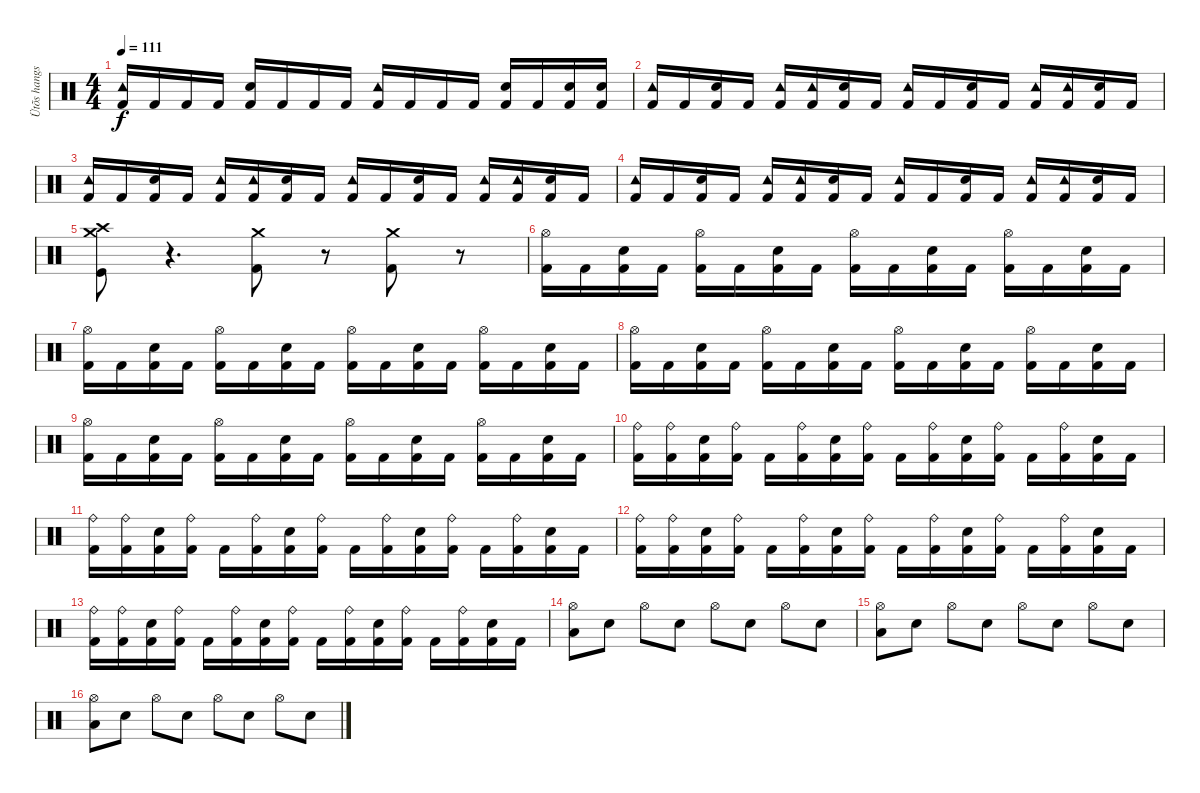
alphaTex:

\track ("Ütõs hangszer" "Ütõs hangs") {instrument percussion}
\staff {score}
\articulation defaults
\ts (4 4)
\tempo 111
\clef neutral
\ks c
("Kick (hit) 2" "Tambourine (hit)").16{dy f} "Kick (hit) 2".16 "Kick (hit) 2".16 "Kick (hit) 2".16 ("Kick (hit) 2" "Electric Snare (hit)").16 "Kick (hit) 2".16 "Kick (hit) 2".16 "Kick (hit) 2".16 ("Kick (hit) 2" "Tambourine (hit)").16 "Kick (hit) 2".16 "Kick (hit) 2".16 "Kick (hit) 2".16 ("Kick (hit) 2" "Electric Snare (hit)").16 "Kick (hit) 2".16 ("Kick (hit) 2" "Electric Snare (hit)").16 ("Kick (hit) 2" "Electric Snare (hit)").16 |
("Kick (hit) 2" "Tambourine (hit)").16 "Kick (hit) 2".16 ("Kick (hit) 2" "Electric Snare (hit)").16 "Kick (hit) 2".16 ("Kick (hit) 2" "Tambourine (hit)").16 ("Kick (hit) 2" "Tambourine (hit)").16 ("Kick (hit) 2" "Electric Snare (hit)").16 "Kick (hit) 2".16 ("Kick (hit) 2" "Tambourine (hit)").16 "Kick (hit) 2".16 ("Kick (hit) 2" "Electric Snare (hit)").16 "Kick (hit) 2".16 ("Kick (hit) 2" "Tambourine (hit)").16 ("Kick (hit) 2" "Tambourine (hit)").16 ("Kick (hit) 2" "Electric Snare (hit)").16 "Kick (hit) 2".16 |
("Kick (hit) 2" "Tambourine (hit)").16 "Kick (hit) 2".16 ("Kick (hit) 2" "Electric Snare (hit)").16 "Kick (hit) 2".16 ("Kick (hit) 2" "Tambourine (hit)").16 ("Kick (hit) 2" "Tambourine (hit)").16 ("Kick (hit) 2" "Electric Snare (hit)").16 "Kick (hit) 2".16 ("Kick (hit) 2" "Tambourine (hit)").16 "Kick (hit) 2".16 ("Kick (hit) 2" "Electric Snare (hit)").16 "Kick (hit) 2".16 ("Kick (hit) 2" "Tambourine (hit)").16 ("Kick (hit) 2" "Tambourine (hit)").16 ("Kick (hit) 2" "Electric Snare (hit)").16 "Kick (hit) 2".16 |
("Kick (hit) 2" "Tambourine (hit)").16 "Kick (hit) 2".16 ("Kick (hit) 2" "Electric Snare (hit)").16 "Kick (hit) 2".16 ("Kick (hit) 2" "Tambourine (hit)").16 ("Kick (hit) 2" "Tambourine (hit)").16 ("Kick (hit) 2" "Electric Snare (hit)").16 "Kick (hit) 2".16 ("Kick (hit) 2" "Tambourine (hit)").16 "Kick (hit) 2".16 ("Kick (hit) 2" "Electric Snare (hit)").16 "Kick (hit) 2".16 ("Kick (hit) 2" "Tambourine (hit)").16 ("Kick (hit) 2" "Tambourine (hit)").16 ("Kick (hit) 2" "Electric Snare (hit)").16 "Kick (hit) 2".16 |
("Crash medium (hit)" "Crash high (hit)" "Kick (hit)").8 r.4{d} ("Crash medium (hit)" "Kick (hit) 2").8 r.8 ("Crash medium (hit)" "Kick (hit) 2").8 r.8 |
("Kick (hit) 2" "Hi-Hat (open)").16 "Kick (hit) 2".16 ("Kick (hit) 2" "Electric Snare (hit)").16 "Kick (hit) 2".16 ("Kick (hit) 2" "Hi-Hat (open)").16 "Kick (hit) 2".16 ("Kick (hit) 2" "Electric Snare (hit)").16 "Kick (hit) 2".16 ("Kick (hit) 2" "Hi-Hat (open)").16 "Kick (hit) 2".16 ("Kick (hit) 2" "Electric Snare (hit)").16 "Kick (hit) 2".16 ("Kick (hit) 2" "Hi-Hat (open)").16 "Kick (hit) 2".16 ("Kick (hit) 2" "Electric Snare (hit)").16 "Kick (hit) 2".16 |
("Kick (hit) 2" "Hi-Hat (open)").16 "Kick (hit) 2".16 ("Kick (hit) 2" "Electric Snare (hit)").16 "Kick (hit) 2".16 ("Kick (hit) 2" "Hi-Hat (open)").16 "Kick (hit) 2".16 ("Kick (hit) 2" "Electric Snare (hit)").16 "Kick (hit) 2".16 ("Kick (hit) 2" "Hi-Hat (open)").16 "Kick (hit) 2".16 ("Kick (hit) 2" "Electric Snare (hit)").16 "Kick (hit) 2".16 ("Kick (hit) 2" "Hi-Hat (open)").16 "Kick (hit) 2".16 ("Kick (hit) 2" "Electric Snare (hit)").16 "Kick (hit) 2".16 |
("Kick (hit) 2" "Hi-Hat (open)").16 "Kick (hit) 2".16 ("Kick (hit) 2" "Electric Snare (hit)").16 "Kick (hit) 2".16 ("Kick (hit) 2" "Hi-Hat (open)").16 "Kick (hit) 2".16 ("Kick (hit) 2" "Electric Snare (hit)").16 "Kick (hit) 2".16 ("Kick (hit) 2" "Hi-Hat (open)").16 "Kick (hit) 2".16 ("Kick (hit) 2" "Electric Snare (hit)").16 "Kick (hit) 2".16 ("Kick (hit) 2" "Hi-Hat (open)").16 "Kick (hit) 2".16 ("Kick (hit) 2" "Electric Snare (hit)").16 "Kick (hit) 2".16 |
("Kick (hit) 2" "Hi-Hat (open)").16 "Kick (hit) 2".16 ("Kick (hit) 2" "Electric Snare (hit)").16 "Kick (hit) 2".16 ("Kick (hit) 2" "Hi-Hat (open)").16 "Kick (hit) 2".16 ("Kick (hit) 2" "Electric Snare (hit)").16 "Kick (hit) 2".16 ("Kick (hit) 2" "Hi-Hat (open)").16 "Kick (hit) 2".16 ("Kick (hit) 2" "Electric Snare (hit)").16 "Kick (hit) 2".16 ("Kick (hit) 2" "Hi-Hat (open)").16 "Kick (hit) 2".16 ("Kick (hit) 2" "Electric Snare (hit)").16 "Kick (hit) 2".16 |
("Kick (hit) 2" "Ride (bell)").16 ("Kick (hit) 2" "Ride (bell)").16 ("Kick (hit) 2" "Electric Snare (hit)").16 ("Kick (hit) 2" "Ride (bell)").16 "Kick (hit) 2".16 ("Kick (hit) 2" "Ride (bell)").16 ("Kick (hit) 2" "Electric Snare (hit)").16 ("Kick (hit) 2" "Ride (bell)").16 "Kick (hit) 2".16 ("Kick (hit) 2" "Ride (bell)").16 ("Kick (hit) 2" "Electric Snare (hit)").16 ("Kick (hit) 2" "Ride (bell)").16 "Kick (hit) 2".16 ("Kick (hit) 2" "Ride (bell)").16 ("Kick (hit) 2" "Electric Snare (hit)").16 "Kick (hit) 2".16 |
("Kick (hit) 2" "Ride (bell)").16 ("Kick (hit) 2" "Ride (bell)").16 ("Kick (hit) 2" "Electric Snare (hit)").16 ("Kick (hit) 2" "Ride (bell)").16 "Kick (hit) 2".16 ("Kick (hit) 2" "Ride (bell)").16 ("Kick (hit) 2" "Electric Snare (hit)").16 ("Kick (hit) 2" "Ride (bell)").16 "Kick (hit) 2".16 ("Kick (hit) 2" "Ride (bell)").16 ("Kick (hit) 2" "Electric Snare (hit)").16 ("Kick (hit) 2" "Ride (bell)").16 "Kick (hit) 2".16 ("Kick (hit) 2" "Ride (bell)").16 ("Kick (hit) 2" "Electric Snare (hit)").16 "Kick (hit) 2".16 |
("Kick (hit) 2" "Ride (bell)").16 ("Kick (hit) 2" "Ride (bell)").16 ("Kick (hit) 2" "Electric Snare (hit)").16 ("Kick (hit) 2" "Ride (bell)").16 "Kick (hit) 2".16 ("Kick (hit) 2" "Ride (bell)").16 ("Kick (hit) 2" "Electric Snare (hit)").16 ("Kick (hit) 2" "Ride (bell)").16 "Kick (hit) 2".16 ("Kick (hit) 2" "Ride (bell)").16 ("Kick (hit) 2" "Electric Snare (hit)").16 ("Kick (hit) 2" "Ride (bell)").16 "Kick (hit) 2".16 ("Kick (hit) 2" "Ride (bell)").16 ("Kick (hit) 2" "Electric Snare (hit)").16 "Kick (hit) 2".16 |
("Kick (hit) 2" "Ride (bell)").16 ("Kick (hit) 2" "Ride (bell)").16 ("Kick (hit) 2" "Electric Snare (hit)").16 ("Kick (hit) 2" "Ride (bell)").16 "Kick (hit) 2".16 ("Kick (hit) 2" "Ride (bell)").16 ("Kick (hit) 2" "Electric Snare (hit)").16 ("Kick (hit) 2" "Ride (bell)").16 "Kick (hit) 2".16 ("Kick (hit) 2" "Ride (bell)").16 ("Kick (hit) 2" "Electric Snare (hit)").16 ("Kick (hit) 2" "Ride (bell)").16 "Kick (hit) 2".16 ("Kick (hit) 2" "Ride (bell)").16 ("Kick (hit) 2" "Electric Snare (hit)").16 "Kick (hit) 2".16 |
("Hi-Hat (open)" "Low Floor Tom (hit)").8 "Electric Snare (hit)".8 "Hi-Hat (open)".8 "Electric Snare (hit)".8 "Hi-Hat (open)".8 "Electric Snare (hit)".8 "Hi-Hat (open)".8 "Electric Snare (hit)".8 |
("Hi-Hat (open)" "Low Floor Tom (hit)").8 "Electric Snare (hit)".8 "Hi-Hat (open)".8 "Electric Snare (hit)".8 "Hi-Hat (open)".8 "Electric Snare (hit)".8 "Hi-Hat (open)".8 "Electric Snare (hit)".8 |
("Hi-Hat (open)" "Low Floor Tom (hit)").8 "Electric Snare (hit)".8 "Hi-Hat (open)".8 "Electric Snare (hit)".8 "Hi-Hat (open)".8 "Electric Snare (hit)".8 "Hi-Hat (open)".8 "Electric Snare (hit)".8
